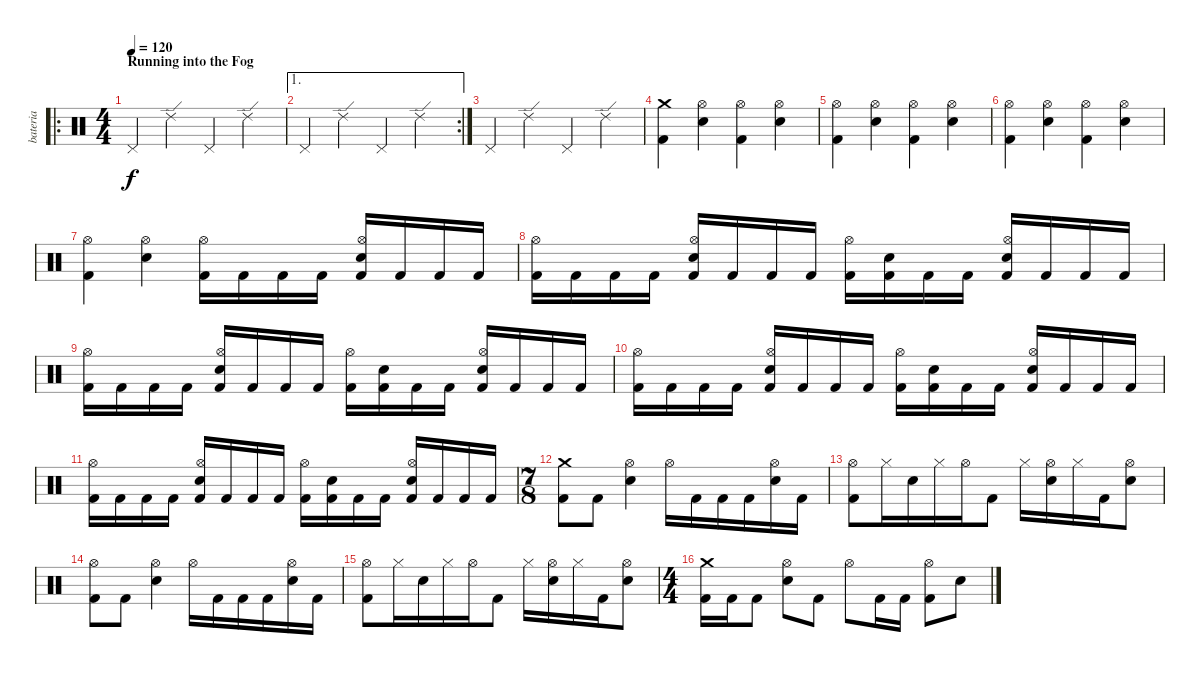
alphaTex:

\track ("bateria" "bateria") {instrument percussion}
\staff {score}
\articulation defaults
\ro
\ts (4 4)
\section ("" "Running into the Fog")
\tempo 120
\clef neutral
\ks c "Pedal Hi-Hat (hit)".4{dy f} "Ride (edge) 2".4 "Pedal Hi-Hat (hit)".4 "Ride (edge) 2".4
|
\ae 1
\rc 2 "Pedal Hi-Hat (hit)".4 "Ride (edge) 2".4 "Pedal Hi-Hat (hit)".4 "Ride (edge) 2".4
|
"Pedal Hi-Hat (hit)".4 "Ride (edge) 2".4 "Pedal Hi-Hat (hit)".4 "Ride (edge) 2".4 |
("Crash medium (hit)" "Kick (hit) 2").4 ("Hi-Hat (open)" "Electric Snare (hit)").4 ("Hi-Hat (open)" "Kick (hit) 2").4 ("Hi-Hat (open)" "Electric Snare (hit)").4 |
("Hi-Hat (open)" "Kick (hit) 2").4 ("Hi-Hat (open)" "Electric Snare (hit)").4 ("Hi-Hat (open)" "Kick (hit) 2").4 ("Hi-Hat (open)" "Electric Snare (hit)").4 |
("Hi-Hat (open)" "Kick (hit) 2").4 ("Hi-Hat (open)" "Electric Snare (hit)").4 ("Hi-Hat (open)" "Kick (hit) 2").4 ("Hi-Hat (open)" "Electric Snare (hit)").4 |
("Hi-Hat (open)" "Kick (hit) 2").4 ("Hi-Hat (open)" "Electric Snare (hit)").4 ("Hi-Hat (open)" "Kick (hit) 2").16 "Kick (hit) 2".16 "Kick (hit) 2".16 "Kick (hit) 2".16 ("Hi-Hat (open)" "Electric Snare (hit)" "Kick (hit) 2").16 "Kick (hit) 2".16 "Kick (hit) 2".16 "Kick (hit) 2".16 |
("Hi-Hat (open)" "Kick (hit) 2").16 "Kick (hit) 2".16 "Kick (hit) 2".16 "Kick (hit) 2".16 ("Hi-Hat (open)" "Electric Snare (hit)" "Kick (hit) 2").16 "Kick (hit) 2".16 "Kick (hit) 2".16 "Kick (hit) 2".16 ("Hi-Hat (open)" "Kick (hit) 2").16 ("Electric Snare (hit)" "Kick (hit) 2").16 "Kick (hit) 2".16 "Kick (hit) 2".16 ("Hi-Hat (open)" "Electric Snare (hit)" "Kick (hit) 2").16 "Kick (hit) 2".16 "Kick (hit) 2".16 "Kick (hit) 2".16 |
("Hi-Hat (open)" "Kick (hit) 2").16 "Kick (hit) 2".16 "Kick (hit) 2".16 "Kick (hit) 2".16 ("Hi-Hat (open)" "Electric Snare (hit)" "Kick (hit) 2").16 "Kick (hit) 2".16 "Kick (hit) 2".16 "Kick (hit) 2".16 ("Hi-Hat (open)" "Kick (hit) 2").16 ("Electric Snare (hit)" "Kick (hit) 2").16 "Kick (hit) 2".16 "Kick (hit) 2".16 ("Hi-Hat (open)" "Electric Snare (hit)" "Kick (hit) 2").16 "Kick (hit) 2".16 "Kick (hit) 2".16 "Kick (hit) 2".16 |
("Hi-Hat (open)" "Kick (hit) 2").16 "Kick (hit) 2".16 "Kick (hit) 2".16 "Kick (hit) 2".16 ("Hi-Hat (open)" "Electric Snare (hit)" "Kick (hit) 2").16 "Kick (hit) 2".16 "Kick (hit) 2".16 "Kick (hit) 2".16 ("Hi-Hat (open)" "Kick (hit) 2").16 ("Electric Snare (hit)" "Kick (hit) 2").16 "Kick (hit) 2".16 "Kick (hit) 2".16 ("Hi-Hat (open)" "Electric Snare (hit)" "Kick (hit) 2").16 "Kick (hit) 2".16 "Kick (hit) 2".16 "Kick (hit) 2".16 |
("Hi-Hat (open)" "Kick (hit) 2").16 "Kick (hit) 2".16 "Kick (hit) 2".16 "Kick (hit) 2".16 ("Hi-Hat (open)" "Electric Snare (hit)" "Kick (hit) 2").16 "Kick (hit) 2".16 "Kick (hit) 2".16 "Kick (hit) 2".16 ("Hi-Hat (open)" "Kick (hit) 2").16 ("Electric Snare (hit)" "Kick (hit) 2").16 "Kick (hit) 2".16 "Kick (hit) 2".16 ("Hi-Hat (open)" "Electric Snare (hit)" "Kick (hit) 2").16 "Kick (hit) 2".16 "Kick (hit) 2".16 "Kick (hit) 2".16 |
\ts (7 8)
("Crash medium (hit)" "Kick (hit) 2").8 "Kick (hit) 2".8 ("Hi-Hat (open)" "Electric Snare (hit)").4 "Hi-Hat (open)".16 "Kick (hit) 2".16 "Kick (hit) 2".16 "Kick (hit) 2".16 ("Hi-Hat (open)" "Electric Snare (hit)").16 "Kick (hit) 2".16 |
("Hi-Hat (open)" "Kick (hit) 2").8 "Hi-Hat (closed)".16 "Electric Snare (hit)".16 "Hi-Hat (closed)".16 "Hi-Hat (open)".16 "Kick (hit) 2".8 "Hi-Hat (closed)".16 ("Hi-Hat (open)" "Electric Snare (hit)").16 "Hi-Hat (closed)".16 "Kick (hit) 2".16 ("Hi-Hat (open)" "Electric Snare (hit)").8 |
("Hi-Hat (open)" "Kick (hit) 2").8 "Kick (hit) 2".8 ("Hi-Hat (open)" "Electric Snare (hit)").4 "Hi-Hat (open)".16 "Kick (hit) 2".16 "Kick (hit) 2".16 "Kick (hit) 2".16 ("Hi-Hat (open)" "Electric Snare (hit)").16 "Kick (hit) 2".16 |
("Hi-Hat (open)" "Kick (hit) 2").8 "Hi-Hat (closed)".16 "Electric Snare (hit)".16 "Hi-Hat (closed)".16 "Hi-Hat (open)".16 "Kick (hit) 2".8 "Hi-Hat (closed)".16 ("Hi-Hat (open)" "Electric Snare (hit)").16 "Hi-Hat (closed)".16 "Kick (hit) 2".16 ("Hi-Hat (open)" "Electric Snare (hit)").8 |
\ts (4 4)
("Crash medium (hit)" "Kick (hit) 2").16 "Kick (hit) 2".16 "Kick (hit) 2".8 ("Hi-Hat (open)" "Electric Snare (hit)").8 "Kick (hit) 2".8 "Hi-Hat (open)".8 "Kick (hit) 2".16 "Kick (hit) 2".16 ("Hi-Hat (open)" "Kick (hit) 2").8 "Electric Snare (hit)".8
